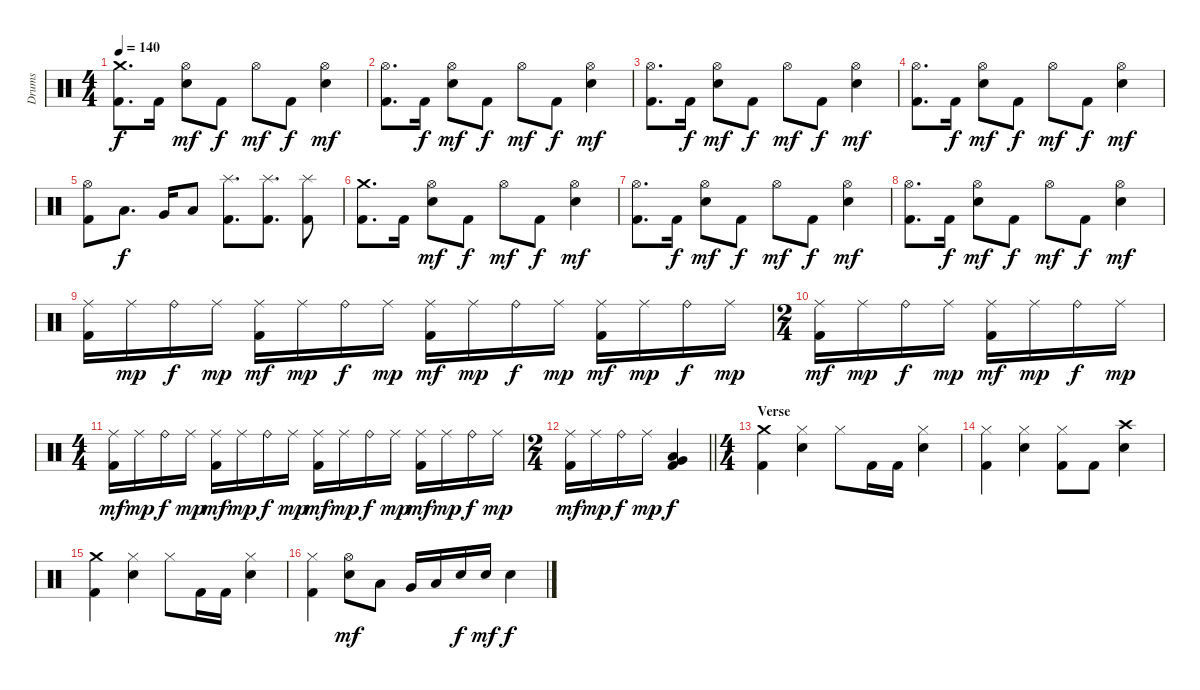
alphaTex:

\track ("Drums" "Drums") {instrument percussion}
\staff {score}
\articulation defaults
\ts (4 4)
\tempo 140
\clef neutral
\ks c
("Kick (hit) 2" "Crash medium (hit)").8{d dy f} "Kick (hit) 2".16 ("Hi-Hat (open)" "Electric Snare (hit)").8{dy mf} "Kick (hit) 2".8{dy f} "Hi-Hat (open)".8{dy mf} "Kick (hit) 2".8{dy f} ("Hi-Hat (open)" "Electric Snare (hit)").4{dy mf} |
("Kick (hit) 2" "Hi-Hat (open)").8{d} "Kick (hit) 2".16{dy f} ("Hi-Hat (open)" "Electric Snare (hit)").8{dy mf} "Kick (hit) 2".8{dy f} "Hi-Hat (open)".8{dy mf} "Kick (hit) 2".8{dy f} ("Hi-Hat (open)" "Electric Snare (hit)").4{dy mf} |
("Kick (hit) 2" "Hi-Hat (open)").8{d} "Kick (hit) 2".16{dy f} ("Hi-Hat (open)" "Electric Snare (hit)").8{dy mf} "Kick (hit) 2".8{dy f} "Hi-Hat (open)".8{dy mf} "Kick (hit) 2".8{dy f} ("Hi-Hat (open)" "Electric Snare (hit)").4{dy mf} |
("Kick (hit) 2" "Hi-Hat (open)").8{d} "Kick (hit) 2".16{dy f} ("Hi-Hat (open)" "Electric Snare (hit)").8{dy mf} "Kick (hit) 2".8{dy f} "Hi-Hat (open)".8{dy mf} "Kick (hit) 2".8{dy f} ("Hi-Hat (open)" "Electric Snare (hit)").4{dy mf} |
("Kick (hit) 2" "Hi-Hat (open)").8 "Low Tom (hit)".8{d dy f} "Very Low Tom (hit)".16 "Low Floor Tom (hit)".8 ("Kick (hit) 2" "Splash (hit)").8{d} ("Kick (hit) 2" "Splash (hit)").8{d} ("Kick (hit) 2" "Splash (hit)").8 |
("Kick (hit) 2" "Crash medium (hit)").8{d} "Kick (hit) 2".16 ("Hi-Hat (open)" "Electric Snare (hit)").8{dy mf} "Kick (hit) 2".8{dy f} "Hi-Hat (open)".8{dy mf} "Kick (hit) 2".8{dy f} ("Hi-Hat (open)" "Electric Snare (hit)").4{dy mf} |
("Kick (hit) 2" "Hi-Hat (open)").8{d} "Kick (hit) 2".16{dy f} ("Hi-Hat (open)" "Electric Snare (hit)").8{dy mf} "Kick (hit) 2".8{dy f} "Hi-Hat (open)".8{dy mf} "Kick (hit) 2".8{dy f} ("Hi-Hat (open)" "Electric Snare (hit)").4{dy mf} |
("Kick (hit) 2" "Hi-Hat (open)").8{d} "Kick (hit) 2".16{dy f} ("Hi-Hat (open)" "Electric Snare (hit)").8{dy mf} "Kick (hit) 2".8{dy f} "Hi-Hat (open)".8{dy mf} "Kick (hit) 2".8{dy f} ("Hi-Hat (open)" "Electric Snare (hit)").4{dy mf} |
("Kick (hit) 2" "Ride (middle)").16 "Ride (middle)".16{dy mp} "Ride (bell)".16{dy f} "Ride (middle)".16{dy mp} ("Kick (hit) 2" "Ride (middle)").16{dy mf} "Ride (middle)".16{dy mp} "Ride (bell)".16{dy f} "Ride (middle)".16{dy mp} ("Kick (hit) 2" "Ride (middle)").16{dy mf} "Ride (middle)".16{dy mp} "Ride (bell)".16{dy f} "Ride (middle)".16{dy mp} ("Kick (hit) 2" "Ride (middle)").16{dy mf} "Ride (middle)".16{dy mp} "Ride (bell)".16{dy f} "Ride (middle)".16{dy mp} |
\ts (2 4)
("Kick (hit) 2" "Ride (middle)").16{dy mf} "Ride (middle)".16{dy mp} "Ride (bell)".16{dy f} "Ride (middle)".16{dy mp} ("Kick (hit) 2" "Ride (middle)").16{dy mf} "Ride (middle)".16{dy mp} "Ride (bell)".16{dy f} "Ride (middle)".16{dy mp} |
\ts (4 4)
("Kick (hit) 2" "Ride (middle)").16{dy mf} "Ride (middle)".16{dy mp} "Ride (bell)".16{dy f} "Ride (middle)".16{dy mp} ("Kick (hit) 2" "Ride (middle)").16{dy mf} "Ride (middle)".16{dy mp} "Ride (bell)".16{dy f} "Ride (middle)".16{dy mp} ("Kick (hit) 2" "Ride (middle)").16{dy mf} "Ride (middle)".16{dy mp} "Ride (bell)".16{dy f} "Ride (middle)".16{dy mp} ("Kick (hit) 2" "Ride (middle)").16{dy mf} "Ride (middle)".16{dy mp} "Ride (bell)".16{dy f} "Ride (middle)".16{dy mp} |
\ts (2 4)
\barLineRight lightlight
("Kick (hit) 2" "Ride (middle)").16{dy mf} "Ride (middle)".16{dy mp} "Ride (bell)".16{dy f} "Ride (middle)".16{dy mp} ("Kick (hit) 2" "Very Low Tom (hit)" "Low Tom (hit)").4{dy f} |
\ts (4 4)
\section ("" "Verse")
("Kick (hit) 2" "Crash medium (hit)").4 ("Hi-Hat (closed)" "Electric Snare (hit)").4 "Hi-Hat (closed)".8 "Kick (hit) 2".16 "Kick (hit) 2".16 ("Hi-Hat (closed)" "Electric Snare (hit)").4 |
("Kick (hit) 2" "Hi-Hat (closed)").4 ("Hi-Hat (closed)" "Electric Snare (hit)").4 ("Kick (hit) 2" "Hi-Hat (closed)").8 "Kick (hit) 2".8 ("Crash high (hit)" "Electric Snare (hit)").4 |
("Kick (hit) 2" "Crash medium (hit)").4 ("Hi-Hat (closed)" "Electric Snare (hit)").4 "Hi-Hat (closed)".8 "Kick (hit) 2".16 "Kick (hit) 2".16 ("Hi-Hat (closed)" "Electric Snare (hit)").4 |
("Kick (hit) 2" "Hi-Hat (closed)").4 ("Hi-Hat (open)" "Electric Snare (hit)").8{dy mf} "Low Tom (hit)".8 "Very Low Tom (hit)".16 "Low Floor Tom (hit)".16 "Electric Snare (hit)".16{dy f} "Electric Snare (hit)".16{dy mf} "Electric Snare (hit)".4{dy f}
